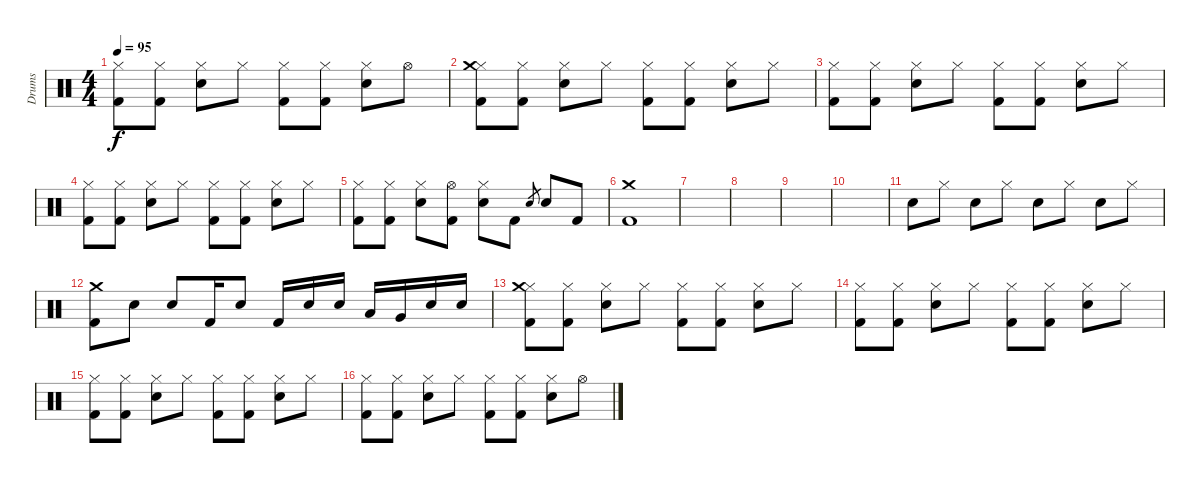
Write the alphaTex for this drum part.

\track ("Drums" "Drums") {instrument percussion}
\staff {score}
\articulation defaults
\ts (4 4)
\tempo 95
\clef neutral
\ks c
("Hi-Hat (closed)" "Kick (hit) 2").8{dy f} ("Hi-Hat (closed)" "Kick (hit) 2").8 ("Hi-Hat (closed)" "Snare (hit) 2").8 "Hi-Hat (closed)".8 ("Hi-Hat (closed)" "Kick (hit) 2").8 ("Hi-Hat (closed)" "Kick (hit) 2").8 ("Hi-Hat (closed)" "Snare (hit) 2").8 "Hi-Hat (open)".8 |
("Hi-Hat (closed)" "Crash medium (hit)" "Kick (hit) 2").8 ("Hi-Hat (closed)" "Kick (hit) 2").8 ("Hi-Hat (closed)" "Snare (hit) 2").8 "Hi-Hat (closed)".8 ("Hi-Hat (closed)" "Kick (hit) 2").8 ("Hi-Hat (closed)" "Kick (hit) 2").8 ("Hi-Hat (closed)" "Snare (hit) 2").8 "Hi-Hat (closed)".8 |
("Hi-Hat (closed)" "Kick (hit) 2").8 ("Hi-Hat (closed)" "Kick (hit) 2").8 ("Hi-Hat (closed)" "Snare (hit) 2").8 "Hi-Hat (closed)".8 ("Hi-Hat (closed)" "Kick (hit) 2").8 ("Hi-Hat (closed)" "Kick (hit) 2").8 ("Hi-Hat (closed)" "Snare (hit) 2").8 "Hi-Hat (closed)".8 |
("Hi-Hat (closed)" "Kick (hit) 2").8 ("Hi-Hat (closed)" "Kick (hit) 2").8 ("Hi-Hat (closed)" "Snare (hit) 2").8 "Hi-Hat (closed)".8 ("Hi-Hat (closed)" "Kick (hit) 2").8 ("Hi-Hat (closed)" "Kick (hit) 2").8 ("Hi-Hat (closed)" "Snare (hit) 2").8 "Hi-Hat (closed)".8 |
("Hi-Hat (closed)" "Kick (hit) 2").8 ("Hi-Hat (closed)" "Kick (hit) 2").8 ("Hi-Hat (closed)" "Snare (hit) 2").8 ("Hi-Hat (open)" "Kick (hit) 2").8 ("Hi-Hat (closed)" "Snare (hit) 2").8 "Kick (hit) 2".8 "Snare (hit) 2".8{gr} "Snare (hit) 2".8 "Kick (hit) 2".8 |
("Crash medium (hit)" "Kick (hit) 2").1 |
|
|
|
|
"Snare (hit) 2".8 "Hi-Hat (closed)".8 "Snare (hit) 2".8 "Hi-Hat (closed)".8 "Snare (hit) 2".8 "Hi-Hat (closed)".8 "Snare (hit) 2".8 "Hi-Hat (closed)".8 |
("Crash medium (hit)" "Kick (hit) 2").8 "Snare (hit) 2".8 "Snare (hit) 2".8 "Kick (hit) 2".16 "Snare (hit) 2".8 "Kick (hit) 2".16 "Snare (hit) 2".16 "Snare (hit) 2".16 "Low Tom (hit)".16 "Very Low Tom (hit)".16 "Snare (hit) 2".16 "Snare (hit) 2".16 |
("Hi-Hat (closed)" "Crash medium (hit)" "Kick (hit) 2").8 ("Hi-Hat (closed)" "Kick (hit) 2").8 ("Hi-Hat (closed)" "Snare (hit) 2").8 "Hi-Hat (closed)".8 ("Hi-Hat (closed)" "Kick (hit) 2").8 ("Hi-Hat (closed)" "Kick (hit) 2").8 ("Hi-Hat (closed)" "Snare (hit) 2").8 "Hi-Hat (closed)".8 |
("Hi-Hat (closed)" "Kick (hit) 2").8 ("Hi-Hat (closed)" "Kick (hit) 2").8 ("Hi-Hat (closed)" "Snare (hit) 2").8 "Hi-Hat (closed)".8 ("Hi-Hat (closed)" "Kick (hit) 2").8 ("Hi-Hat (closed)" "Kick (hit) 2").8 ("Hi-Hat (closed)" "Snare (hit) 2").8 "Hi-Hat (closed)".8 |
("Hi-Hat (closed)" "Kick (hit) 2").8 ("Hi-Hat (closed)" "Kick (hit) 2").8 ("Hi-Hat (closed)" "Snare (hit) 2").8 "Hi-Hat (closed)".8 ("Hi-Hat (closed)" "Kick (hit) 2").8 ("Hi-Hat (closed)" "Kick (hit) 2").8 ("Hi-Hat (closed)" "Snare (hit) 2").8 "Hi-Hat (closed)".8 |
("Hi-Hat (closed)" "Kick (hit) 2").8 ("Hi-Hat (closed)" "Kick (hit) 2").8 ("Hi-Hat (closed)" "Snare (hit) 2").8 "Hi-Hat (closed)".8 ("Hi-Hat (closed)" "Kick (hit) 2").8 ("Hi-Hat (closed)" "Kick (hit) 2").8 ("Hi-Hat (closed)" "Snare (hit) 2").8 "Hi-Hat (open)".8
